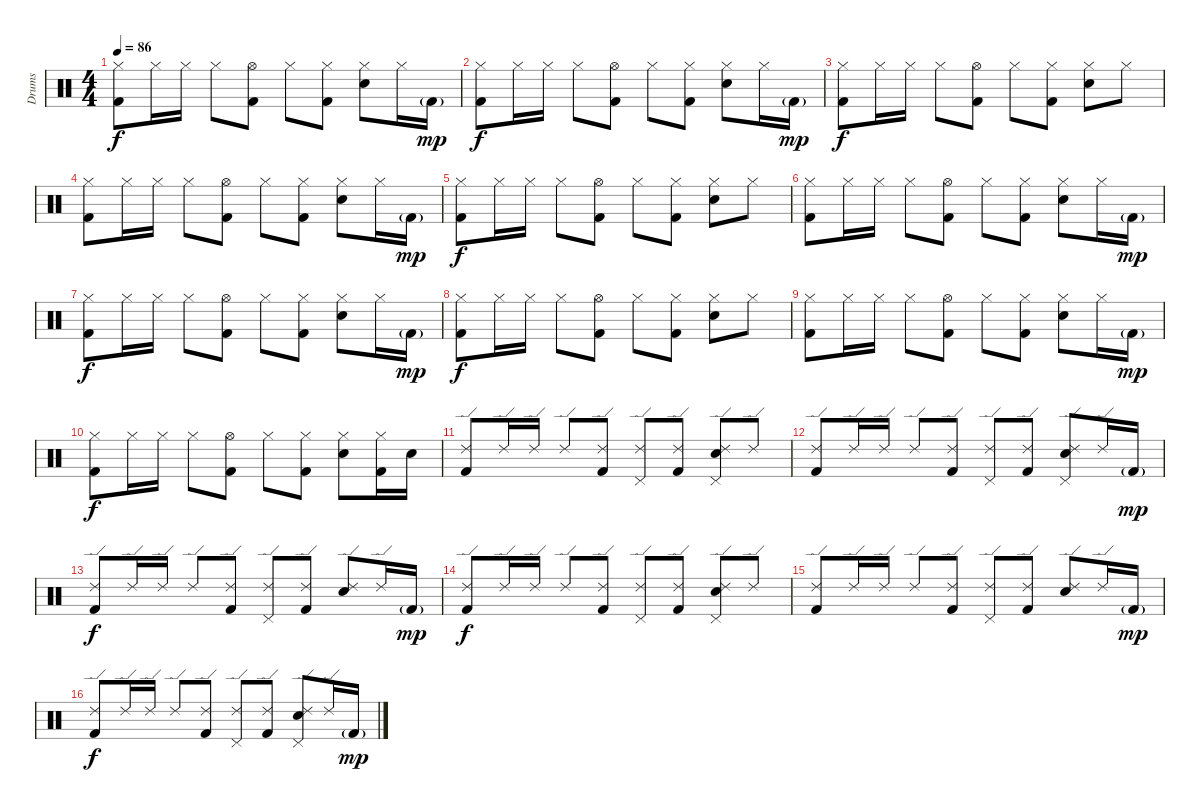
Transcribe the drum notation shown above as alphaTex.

\track ("Drums" "Drums") {instrument percussion}
\staff {score}
\articulation defaults
\ts (4 4)
\tempo 86
\clef neutral
\ks c
("Hi-Hat (closed)" "Kick (hit) 2").8{dy f} "Hi-Hat (closed)".16 "Hi-Hat (closed)".16 "Hi-Hat (closed)".8 ("Hi-Hat (open)" "Kick (hit) 2").8 "Hi-Hat (closed)".8 ("Hi-Hat (closed)" "Kick (hit) 2").8 ("Hi-Hat (closed)" "Snare (hit) 2").8 "Hi-Hat (closed)".16 "Kick (hit) 2"{g}.16{dy mp} |
("Hi-Hat (closed)" "Kick (hit) 2").8{dy f} "Hi-Hat (closed)".16 "Hi-Hat (closed)".16 "Hi-Hat (closed)".8 ("Hi-Hat (open)" "Kick (hit) 2").8 "Hi-Hat (closed)".8 ("Hi-Hat (closed)" "Kick (hit) 2").8 ("Hi-Hat (closed)" "Snare (hit) 2").8 "Hi-Hat (closed)".16 "Kick (hit) 2"{g}.16{dy mp} |
("Hi-Hat (closed)" "Kick (hit) 2").8{dy f} "Hi-Hat (closed)".16 "Hi-Hat (closed)".16 "Hi-Hat (closed)".8 ("Hi-Hat (open)" "Kick (hit) 2").8 "Hi-Hat (closed)".8 ("Hi-Hat (closed)" "Kick (hit) 2").8 ("Hi-Hat (closed)" "Snare (hit) 2").8 "Hi-Hat (closed)".8 |
("Hi-Hat (closed)" "Kick (hit) 2").8 "Hi-Hat (closed)".16 "Hi-Hat (closed)".16 "Hi-Hat (closed)".8 ("Hi-Hat (open)" "Kick (hit) 2").8 "Hi-Hat (closed)".8 ("Hi-Hat (closed)" "Kick (hit) 2").8 ("Hi-Hat (closed)" "Snare (hit) 2").8 "Hi-Hat (closed)".16 "Kick (hit) 2"{g}.16{dy mp} |
("Hi-Hat (closed)" "Kick (hit) 2").8{dy f} "Hi-Hat (closed)".16 "Hi-Hat (closed)".16 "Hi-Hat (closed)".8 ("Hi-Hat (open)" "Kick (hit) 2").8 "Hi-Hat (closed)".8 ("Hi-Hat (closed)" "Kick (hit) 2").8 ("Hi-Hat (closed)" "Snare (hit) 2").8 "Hi-Hat (closed)".8 |
("Hi-Hat (closed)" "Kick (hit) 2").8 "Hi-Hat (closed)".16 "Hi-Hat (closed)".16 "Hi-Hat (closed)".8 ("Hi-Hat (open)" "Kick (hit) 2").8 "Hi-Hat (closed)".8 ("Hi-Hat (closed)" "Kick (hit) 2").8 ("Hi-Hat (closed)" "Snare (hit) 2").8 "Hi-Hat (closed)".16 "Kick (hit) 2"{g}.16{dy mp} |
("Hi-Hat (closed)" "Kick (hit) 2").8{dy f} "Hi-Hat (closed)".16 "Hi-Hat (closed)".16 "Hi-Hat (closed)".8 ("Hi-Hat (open)" "Kick (hit) 2").8 "Hi-Hat (closed)".8 ("Hi-Hat (closed)" "Kick (hit) 2").8 ("Hi-Hat (closed)" "Snare (hit) 2").8 "Hi-Hat (closed)".16 "Kick (hit) 2"{g}.16{dy mp} |
("Hi-Hat (closed)" "Kick (hit) 2").8{dy f} "Hi-Hat (closed)".16 "Hi-Hat (closed)".16 "Hi-Hat (closed)".8 ("Hi-Hat (open)" "Kick (hit) 2").8 "Hi-Hat (closed)".8 ("Hi-Hat (closed)" "Kick (hit) 2").8 ("Hi-Hat (closed)" "Snare (hit) 2").8 "Hi-Hat (closed)".8 |
("Hi-Hat (closed)" "Kick (hit) 2").8 "Hi-Hat (closed)".16 "Hi-Hat (closed)".16 "Hi-Hat (closed)".8 ("Hi-Hat (open)" "Kick (hit) 2").8 "Hi-Hat (closed)".8 ("Hi-Hat (closed)" "Kick (hit) 2").8 ("Hi-Hat (closed)" "Snare (hit) 2").8 "Hi-Hat (closed)".16 "Kick (hit) 2"{g}.16{dy mp} |
("Hi-Hat (closed)" "Kick (hit) 2").8{dy f} "Hi-Hat (closed)".16 "Hi-Hat (closed)".16 "Hi-Hat (closed)".8 ("Hi-Hat (open)" "Kick (hit) 2").8 "Hi-Hat (closed)".8 ("Hi-Hat (closed)" "Kick (hit) 2").8 ("Hi-Hat (closed)" "Snare (hit) 2").8 ("Hi-Hat (closed)" "Kick (hit) 2").16 "Snare (hit) 2".16 |
("Ride (edge) 2" "Kick (hit) 2").8 "Ride (edge) 2".16 "Ride (edge) 2".16 "Ride (edge) 2".8 ("Ride (edge) 2" "Kick (hit) 2").8 ("Ride (edge) 2" "Pedal Hi-Hat (hit)").8 ("Ride (edge) 2" "Kick (hit) 2").8 ("Ride (edge) 2" "Pedal Hi-Hat (hit)" "Snare (hit) 2").8 "Ride (edge) 2".8 |
("Ride (edge) 2" "Kick (hit) 2").8 "Ride (edge) 2".16 "Ride (edge) 2".16 "Ride (edge) 2".8 ("Ride (edge) 2" "Kick (hit) 2").8 ("Ride (edge) 2" "Pedal Hi-Hat (hit)").8 ("Ride (edge) 2" "Kick (hit) 2").8 ("Ride (edge) 2" "Pedal Hi-Hat (hit)" "Snare (hit) 2").8 "Ride (edge) 2".16 "Kick (hit) 2"{g}.16{dy mp} |
("Ride (edge) 2" "Kick (hit) 2").8{dy f} "Ride (edge) 2".16 "Ride (edge) 2".16 "Ride (edge) 2".8 ("Ride (edge) 2" "Kick (hit) 2").8 ("Ride (edge) 2" "Pedal Hi-Hat (hit)").8 ("Ride (edge) 2" "Kick (hit) 2").8 ("Ride (edge) 2" "Snare (hit) 2").8 "Ride (edge) 2".16 "Kick (hit) 2"{g}.16{dy mp} |
("Ride (edge) 2" "Kick (hit) 2").8{dy f} "Ride (edge) 2".16 "Ride (edge) 2".16 "Ride (edge) 2".8 ("Ride (edge) 2" "Kick (hit) 2").8 ("Ride (edge) 2" "Pedal Hi-Hat (hit)").8 ("Ride (edge) 2" "Kick (hit) 2").8 ("Ride (edge) 2" "Pedal Hi-Hat (hit)" "Snare (hit) 2").8 "Ride (edge) 2".8 |
("Ride (edge) 2" "Kick (hit) 2").8 "Ride (edge) 2".16 "Ride (edge) 2".16 "Ride (edge) 2".8 ("Ride (edge) 2" "Kick (hit) 2").8 ("Ride (edge) 2" "Pedal Hi-Hat (hit)").8 ("Ride (edge) 2" "Kick (hit) 2").8 ("Ride (edge) 2" "Snare (hit) 2").8 "Ride (edge) 2".16 "Kick (hit) 2"{g}.16{dy mp} |
("Ride (edge) 2" "Kick (hit) 2").8{dy f} "Ride (edge) 2".16 "Ride (edge) 2".16 "Ride (edge) 2".8 ("Ride (edge) 2" "Kick (hit) 2").8 ("Ride (edge) 2" "Pedal Hi-Hat (hit)").8 ("Ride (edge) 2" "Kick (hit) 2").8 ("Ride (edge) 2" "Pedal Hi-Hat (hit)" "Snare (hit) 2").8 "Ride (edge) 2".16 "Kick (hit) 2"{g}.16{dy mp}
